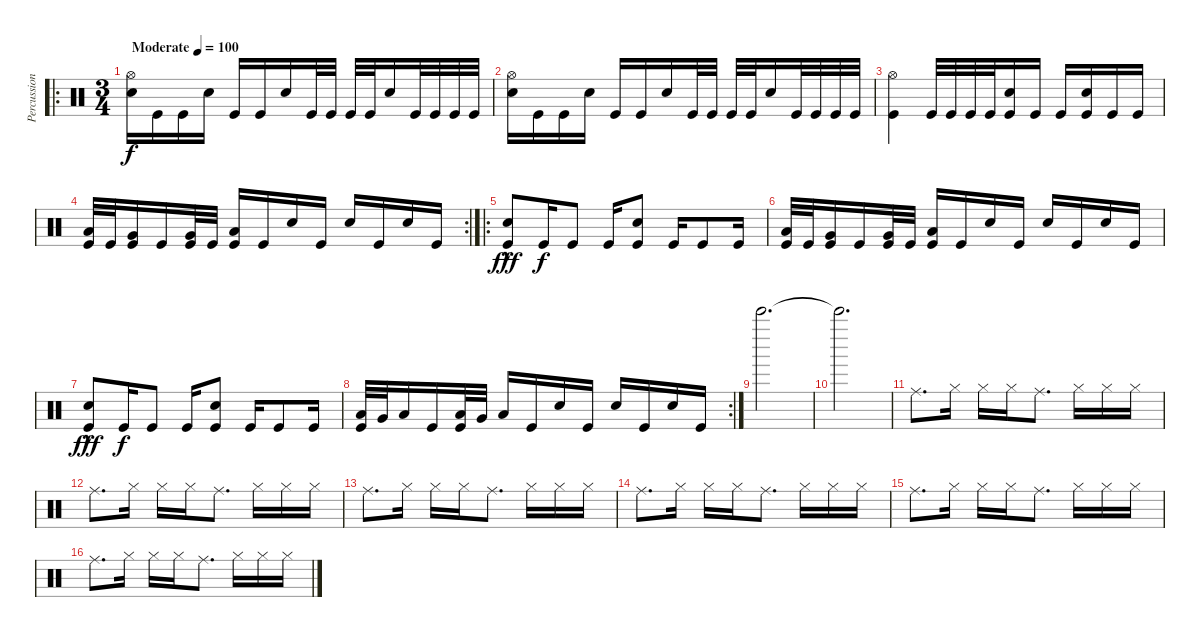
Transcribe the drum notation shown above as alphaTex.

\track ("Percussion" "Percussion") {instrument percussion}
\staff
\articulation defaults
\ro
\ts (3 4)
\tempo (100 "Moderate")
\clef neutral
\ks c
("Hi-Hat (open)" "Electric Snare (hit)").16{dy f} "Kick (hit)".16 "Kick (hit)".16 "Electric Snare (hit)".16 "Kick (hit)".16 "Kick (hit)".16 "Electric Snare (hit)".16 "Kick (hit)".32 "Kick (hit)".32 "Kick (hit)".32 "Kick (hit)".32 "Electric Snare (hit)".16 "Kick (hit)".32 "Kick (hit)".32 "Kick (hit)".32 "Kick (hit)".32 |
("Hi-Hat (open)" "Electric Snare (hit)").16 "Kick (hit)".16 "Kick (hit)".16 "Electric Snare (hit)".16 "Kick (hit)".16 "Kick (hit)".16 "Electric Snare (hit)".16 "Kick (hit)".32 "Kick (hit)".32 "Kick (hit)".32 "Kick (hit)".32 "Electric Snare (hit)".16 "Kick (hit)".32 "Kick (hit)".32 "Kick (hit)".32 "Kick (hit)".32 |
("Hi-Hat (open)" "Kick (hit)").4 "Kick (hit)".32 "Kick (hit)".32 "Kick (hit)".32 "Kick (hit)".32 ("Electric Snare (hit)" "Kick (hit)").16 "Kick (hit)".16 "Kick (hit)".16 ("Electric Snare (hit)" "Kick (hit)").16 "Kick (hit)".16 "Kick (hit)".16 |
\rc 2
("Low Tom (hit)" "Kick (hit)").32 "Kick (hit)".32 ("Very Low Tom (hit)" "Kick (hit)").16 "Kick (hit)".16 ("Very Low Tom (hit)" "Kick (hit)").32 "Kick (hit)".32 ("Low Tom (hit)" "Kick (hit)").16 "Kick (hit)".16 "Electric Snare (hit)".16 "Kick (hit)".16 "Electric Snare (hit)".16 "Kick (hit)".16 "Electric Snare (hit)".16 "Kick (hit)".16 |
\ro
("Electric Snare (hit)"{hac} "Kick (hit)"{hac}).8{dy fff} "Kick (hit)".16{dy f} "Kick (hit)".8 "Kick (hit)".16 ("Electric Snare (hit)" "Kick (hit)").8 "Kick (hit)".16 "Kick (hit)".8 "Kick (hit)".16 |
("Low Tom (hit)" "Kick (hit)").32 "Kick (hit)".32 ("Very Low Tom (hit)" "Kick (hit)").16 "Kick (hit)".16 ("Very Low Tom (hit)" "Kick (hit)").32 "Kick (hit)".32 ("Low Tom (hit)" "Kick (hit)").16 "Kick (hit)".16 "Electric Snare (hit)".16 "Kick (hit)".16 "Electric Snare (hit)".16 "Kick (hit)".16 "Electric Snare (hit)".16 "Kick (hit)".16 |
("Electric Snare (hit)"{hac} "Kick (hit)"{hac}).8{dy fff} "Kick (hit)".16{dy f} "Kick (hit)".8 "Kick (hit)".16 ("Electric Snare (hit)" "Kick (hit)").8 "Kick (hit)".16 "Kick (hit)".8 "Kick (hit)".16 |
\rc 2
("Low Tom (hit)" "Kick (hit)").32 "Very Low Tom (hit)".32 "Low Floor Tom (hit)".16 "Kick (hit)".16 ("Low Floor Tom (hit)" "Kick (hit)").32 "Very Low Tom (hit)".32 "Low Tom (hit)".16 "Kick (hit)".16 "Electric Snare (hit)".16 "Kick (hit)".16 "Electric Snare (hit)".16 "Kick (hit)".16 "Electric Snare (hit)".16 "Kick (hit)".16 |
"Bell Tree (hit)".2{d} |
"Bell Tree (hit)"{t}.2{d} |
"Ride (middle)".8{d} "Hi-Hat (closed)".16 "Hi-Hat (closed)".16 "Hi-Hat (closed)".16 "Ride (middle)".8{d} "Hi-Hat (closed)".16 "Hi-Hat (closed)".16 "Hi-Hat (closed)".16 |
"Ride (middle)".8{d} "Hi-Hat (closed)".16 "Hi-Hat (closed)".16 "Hi-Hat (closed)".16 "Ride (middle)".8{d} "Hi-Hat (closed)".16 "Hi-Hat (closed)".16 "Hi-Hat (closed)".16 |
"Ride (middle)".8{d} "Hi-Hat (closed)".16 "Hi-Hat (closed)".16 "Hi-Hat (closed)".16 "Ride (middle)".8{d} "Hi-Hat (closed)".16 "Hi-Hat (closed)".16 "Hi-Hat (closed)".16 |
"Ride (middle)".8{d} "Hi-Hat (closed)".16 "Hi-Hat (closed)".16 "Hi-Hat (closed)".16 "Ride (middle)".8{d} "Hi-Hat (closed)".16 "Hi-Hat (closed)".16 "Hi-Hat (closed)".16 |
"Ride (middle)".8{d} "Hi-Hat (closed)".16 "Hi-Hat (closed)".16 "Hi-Hat (closed)".16 "Ride (middle)".8{d} "Hi-Hat (closed)".16 "Hi-Hat (closed)".16 "Hi-Hat (closed)".16 |
"Ride (middle)".8{d} "Hi-Hat (closed)".16 "Hi-Hat (closed)".16 "Hi-Hat (closed)".16 "Ride (middle)".8{d} "Hi-Hat (closed)".16 "Hi-Hat (closed)".16 "Hi-Hat (closed)".16
